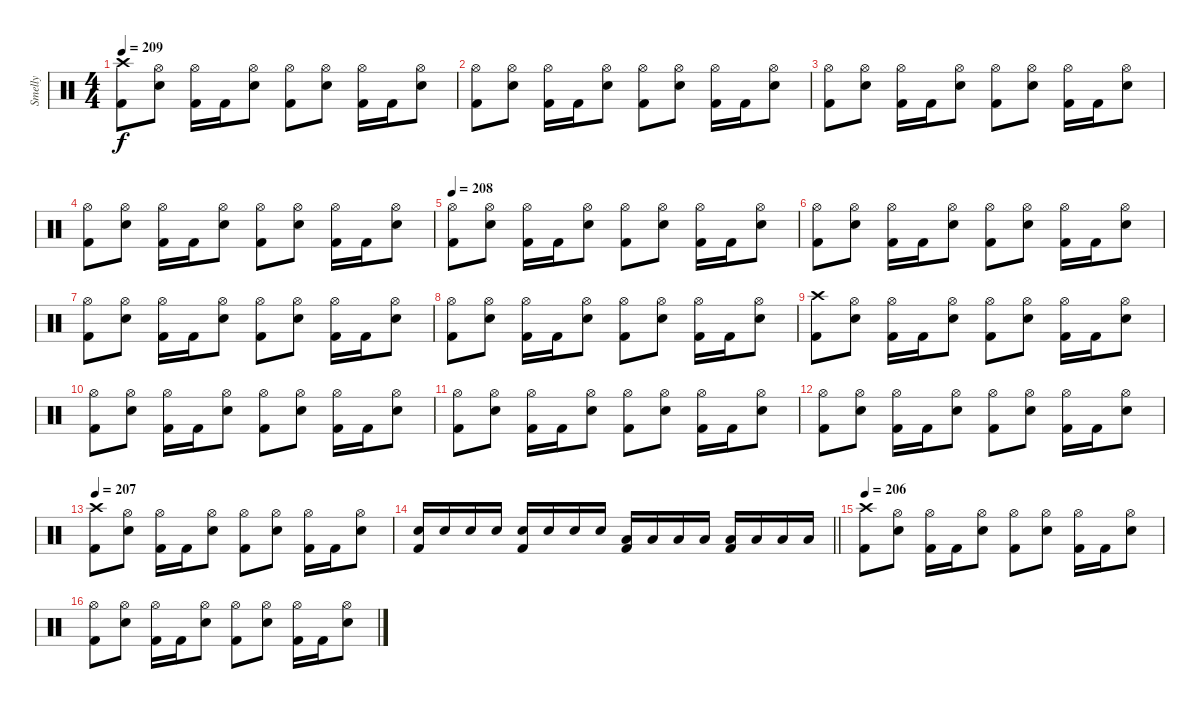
\track ("Smelly" "Smelly") {instrument percussion}
\staff {score}
\articulation defaults
\ts (4 4)
\tempo 209
\clef neutral
\ks c
("Crash high (hit)" "Kick (hit) 2").8{dy f} ("Hi-Hat (open)" "Electric Snare (hit)").8 ("Hi-Hat (open)" "Kick (hit) 2").16 "Kick (hit) 2".16 ("Hi-Hat (open)" "Electric Snare (hit)").8 ("Hi-Hat (open)" "Kick (hit) 2").8 ("Hi-Hat (open)" "Electric Snare (hit)").8 ("Hi-Hat (open)" "Kick (hit) 2").16 "Kick (hit) 2".16 ("Hi-Hat (open)" "Electric Snare (hit)").8 |
("Hi-Hat (open)" "Kick (hit) 2").8 ("Hi-Hat (open)" "Electric Snare (hit)").8 ("Hi-Hat (open)" "Kick (hit) 2").16 "Kick (hit) 2".16 ("Hi-Hat (open)" "Electric Snare (hit)").8 ("Hi-Hat (open)" "Kick (hit) 2").8 ("Hi-Hat (open)" "Electric Snare (hit)").8 ("Hi-Hat (open)" "Kick (hit) 2").16 "Kick (hit) 2".16 ("Hi-Hat (open)" "Electric Snare (hit)").8 |
("Hi-Hat (open)" "Kick (hit) 2").8 ("Hi-Hat (open)" "Electric Snare (hit)").8 ("Hi-Hat (open)" "Kick (hit) 2").16 "Kick (hit) 2".16 ("Hi-Hat (open)" "Electric Snare (hit)").8 ("Hi-Hat (open)" "Kick (hit) 2").8 ("Hi-Hat (open)" "Electric Snare (hit)").8 ("Hi-Hat (open)" "Kick (hit) 2").16 "Kick (hit) 2".16 ("Hi-Hat (open)" "Electric Snare (hit)").8 |
("Hi-Hat (open)" "Kick (hit) 2").8 ("Hi-Hat (open)" "Electric Snare (hit)").8 ("Hi-Hat (open)" "Kick (hit) 2").16 "Kick (hit) 2".16 ("Hi-Hat (open)" "Electric Snare (hit)").8 ("Hi-Hat (open)" "Kick (hit) 2").8 ("Hi-Hat (open)" "Electric Snare (hit)").8 ("Hi-Hat (open)" "Kick (hit) 2").16 "Kick (hit) 2".16 ("Hi-Hat (open)" "Electric Snare (hit)").8 |
\tempo 208
("Hi-Hat (open)" "Kick (hit) 2").8 ("Hi-Hat (open)" "Electric Snare (hit)").8 ("Hi-Hat (open)" "Kick (hit) 2").16 "Kick (hit) 2".16 ("Hi-Hat (open)" "Electric Snare (hit)").8 ("Hi-Hat (open)" "Kick (hit) 2").8 ("Hi-Hat (open)" "Electric Snare (hit)").8 ("Hi-Hat (open)" "Kick (hit) 2").16 "Kick (hit) 2".16 ("Hi-Hat (open)" "Electric Snare (hit)").8 |
("Hi-Hat (open)" "Kick (hit) 2").8 ("Hi-Hat (open)" "Electric Snare (hit)").8 ("Hi-Hat (open)" "Kick (hit) 2").16 "Kick (hit) 2".16 ("Hi-Hat (open)" "Electric Snare (hit)").8 ("Hi-Hat (open)" "Kick (hit) 2").8 ("Hi-Hat (open)" "Electric Snare (hit)").8 ("Hi-Hat (open)" "Kick (hit) 2").16 "Kick (hit) 2".16 ("Hi-Hat (open)" "Electric Snare (hit)").8 |
("Hi-Hat (open)" "Kick (hit) 2").8 ("Hi-Hat (open)" "Electric Snare (hit)").8 ("Hi-Hat (open)" "Kick (hit) 2").16 "Kick (hit) 2".16 ("Hi-Hat (open)" "Electric Snare (hit)").8 ("Hi-Hat (open)" "Kick (hit) 2").8 ("Hi-Hat (open)" "Electric Snare (hit)").8 ("Hi-Hat (open)" "Kick (hit) 2").16 "Kick (hit) 2".16 ("Hi-Hat (open)" "Electric Snare (hit)").8 |
("Hi-Hat (open)" "Kick (hit) 2").8 ("Hi-Hat (open)" "Electric Snare (hit)").8 ("Hi-Hat (open)" "Kick (hit) 2").16 "Kick (hit) 2".16 ("Hi-Hat (open)" "Electric Snare (hit)").8 ("Hi-Hat (open)" "Kick (hit) 2").8 ("Hi-Hat (open)" "Electric Snare (hit)").8 ("Hi-Hat (open)" "Kick (hit) 2").16 "Kick (hit) 2".16 ("Hi-Hat (open)" "Electric Snare (hit)").8 |
("Crash high (hit)" "Kick (hit) 2").8 ("Hi-Hat (open)" "Electric Snare (hit)").8 ("Hi-Hat (open)" "Kick (hit) 2").16 "Kick (hit) 2".16 ("Hi-Hat (open)" "Electric Snare (hit)").8 ("Hi-Hat (open)" "Kick (hit) 2").8 ("Hi-Hat (open)" "Electric Snare (hit)").8 ("Hi-Hat (open)" "Kick (hit) 2").16 "Kick (hit) 2".16 ("Hi-Hat (open)" "Electric Snare (hit)").8 |
("Hi-Hat (open)" "Kick (hit) 2").8 ("Hi-Hat (open)" "Electric Snare (hit)").8 ("Hi-Hat (open)" "Kick (hit) 2").16 "Kick (hit) 2".16 ("Hi-Hat (open)" "Electric Snare (hit)").8 ("Hi-Hat (open)" "Kick (hit) 2").8 ("Hi-Hat (open)" "Electric Snare (hit)").8 ("Hi-Hat (open)" "Kick (hit) 2").16 "Kick (hit) 2".16 ("Hi-Hat (open)" "Electric Snare (hit)").8 |
("Hi-Hat (open)" "Kick (hit) 2").8 ("Hi-Hat (open)" "Electric Snare (hit)").8 ("Hi-Hat (open)" "Kick (hit) 2").16 "Kick (hit) 2".16 ("Hi-Hat (open)" "Electric Snare (hit)").8 ("Hi-Hat (open)" "Kick (hit) 2").8 ("Hi-Hat (open)" "Electric Snare (hit)").8 ("Hi-Hat (open)" "Kick (hit) 2").16 "Kick (hit) 2".16 ("Hi-Hat (open)" "Electric Snare (hit)").8 |
("Hi-Hat (open)" "Kick (hit) 2").8 ("Hi-Hat (open)" "Electric Snare (hit)").8 ("Hi-Hat (open)" "Kick (hit) 2").16 "Kick (hit) 2".16 ("Hi-Hat (open)" "Electric Snare (hit)").8 ("Hi-Hat (open)" "Kick (hit) 2").8 ("Hi-Hat (open)" "Electric Snare (hit)").8 ("Hi-Hat (open)" "Kick (hit) 2").16 "Kick (hit) 2".16 ("Hi-Hat (open)" "Electric Snare (hit)").8 |
\tempo 207
("Crash high (hit)" "Kick (hit) 2").8 ("Hi-Hat (open)" "Electric Snare (hit)").8 ("Hi-Hat (open)" "Kick (hit) 2").16 "Kick (hit) 2".16 ("Hi-Hat (open)" "Electric Snare (hit)").8 ("Hi-Hat (open)" "Kick (hit) 2").8 ("Hi-Hat (open)" "Electric Snare (hit)").8 ("Hi-Hat (open)" "Kick (hit) 2").16 "Kick (hit) 2".16 ("Hi-Hat (open)" "Electric Snare (hit)").8 |
\barLineRight lightlight
("Electric Snare (hit)" "Kick (hit) 2").16 "Electric Snare (hit)".16 "Electric Snare (hit)".16 "Electric Snare (hit)".16 ("Electric Snare (hit)" "Kick (hit) 2").16 "Electric Snare (hit)".16 "Electric Snare (hit)".16 "Electric Snare (hit)".16 ("Low Tom (hit)" "Kick (hit) 2").16 "Low Tom (hit)".16 "Low Tom (hit)".16 "Low Tom (hit)".16 ("Low Floor Tom (hit)" "Kick (hit) 2").16 "Low Floor Tom (hit)".16 "Low Floor Tom (hit)".16 "Low Floor Tom (hit)".16 |
\section ("" "")
\tempo 206
("Crash high (hit)" "Kick (hit) 2").8 ("Hi-Hat (open)" "Electric Snare (hit)").8 ("Hi-Hat (open)" "Kick (hit) 2").16 "Kick (hit) 2".16 ("Hi-Hat (open)" "Electric Snare (hit)").8 ("Hi-Hat (open)" "Kick (hit) 2").8 ("Hi-Hat (open)" "Electric Snare (hit)").8 ("Hi-Hat (open)" "Kick (hit) 2").16 "Kick (hit) 2".16 ("Hi-Hat (open)" "Electric Snare (hit)").8 |
("Hi-Hat (open)" "Kick (hit) 2").8 ("Hi-Hat (open)" "Electric Snare (hit)").8 ("Hi-Hat (open)" "Kick (hit) 2").16 "Kick (hit) 2".16 ("Hi-Hat (open)" "Electric Snare (hit)").8 ("Hi-Hat (open)" "Kick (hit) 2").8 ("Hi-Hat (open)" "Electric Snare (hit)").8 ("Hi-Hat (open)" "Kick (hit) 2").16 "Kick (hit) 2".16 ("Hi-Hat (open)" "Electric Snare (hit)").8
